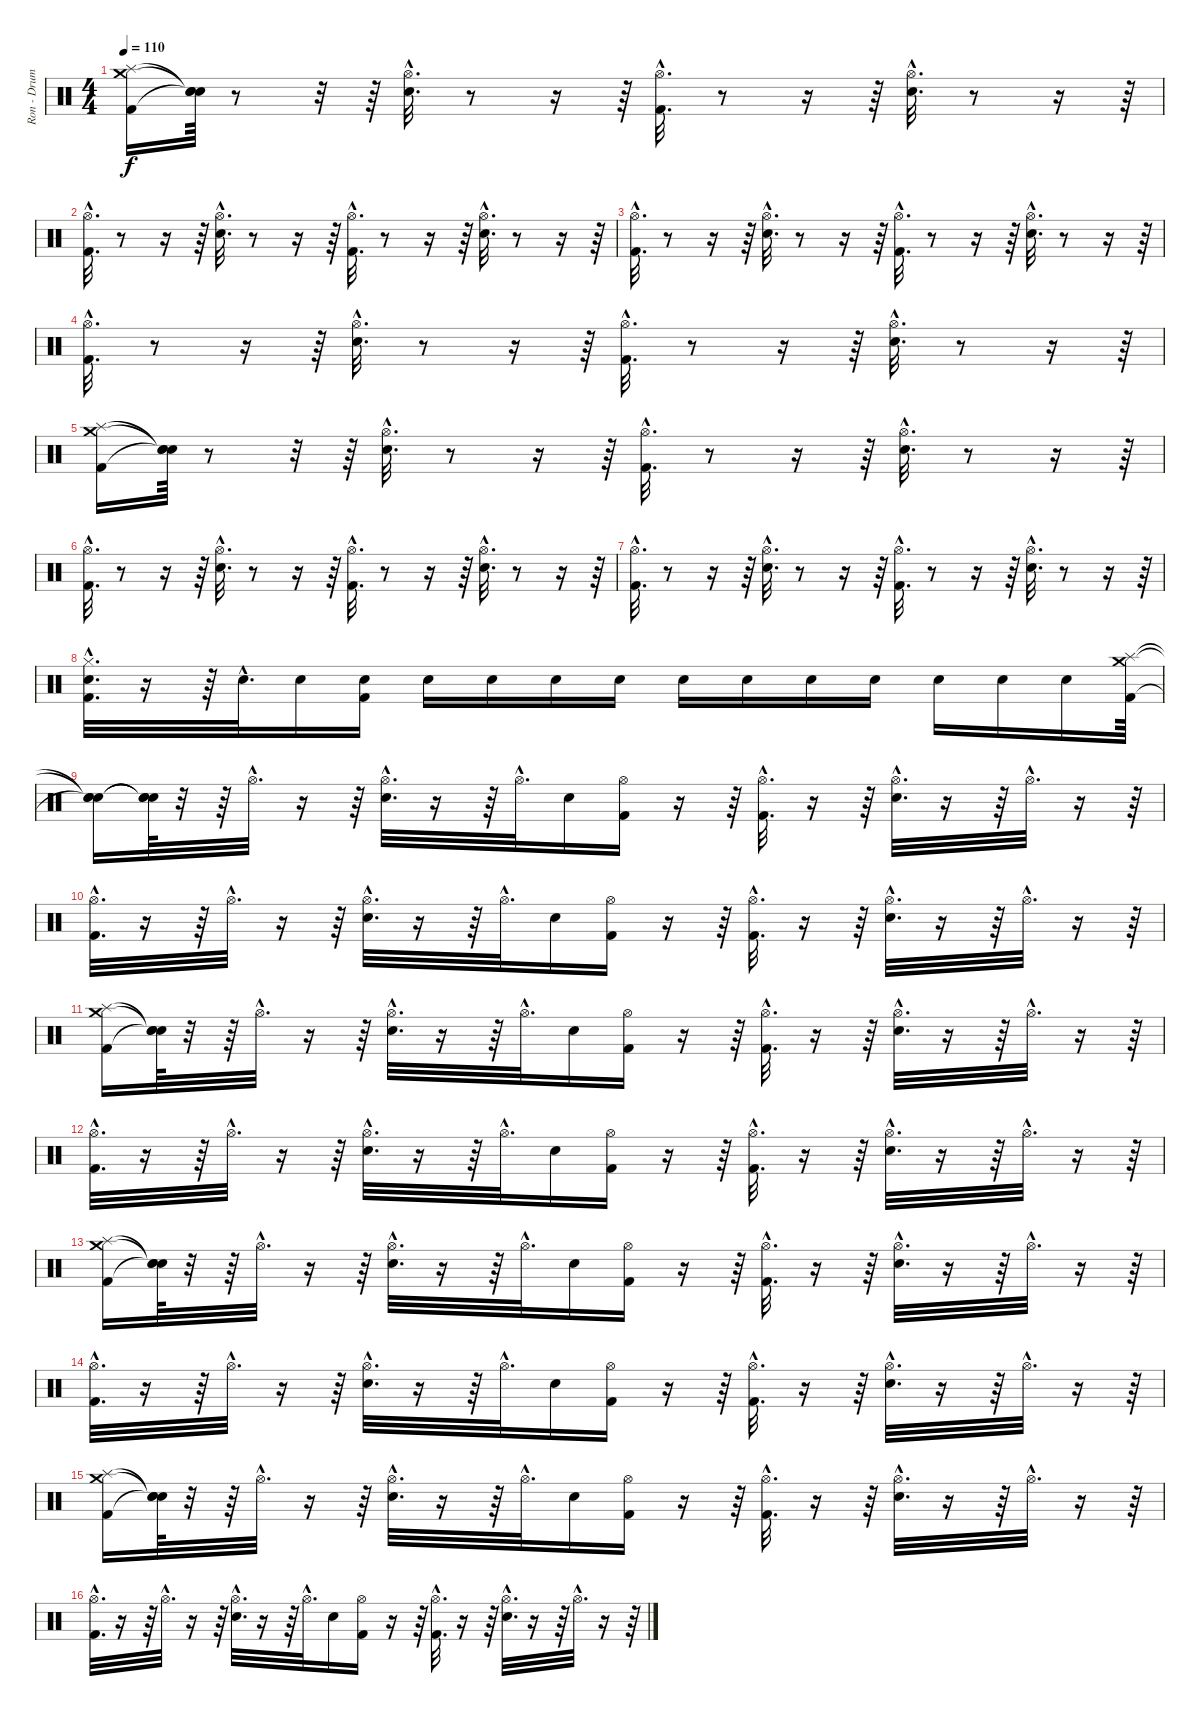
\track ("Ron - Drums" "Ron - Drum") {instrument percussion}
\staff {score}
\articulation defaults
\ts (4 4)
\tempo 110
\clef neutral
\ks c
("Crash medium (hit)" "Splash (hit)" "Kick (hit) 2").16{dy f} ("Snare (hit)"{t} "Snare (hit)"{t} "Snare (hit)"{t}).64 r.8 r.32 r.64 ("Electric Snare (hit)"{hac} "Hi-Hat (open)"{hac}).32{d} r.8 r.16 r.64 ("Kick (hit) 2"{hac} "Hi-Hat (open)"{hac}).32{d} r.8 r.16 r.64 ("Electric Snare (hit)"{hac} "Hi-Hat (open)"{hac}).32{d} r.8 r.16 r.64 |
("Kick (hit) 2"{hac} "Hi-Hat (open)"{hac}).32{d} r.8 r.16 r.64 ("Electric Snare (hit)"{hac} "Hi-Hat (open)"{hac}).32{d} r.8 r.16 r.64 ("Kick (hit) 2"{hac} "Hi-Hat (open)"{hac}).32{d} r.8 r.16 r.64 ("Electric Snare (hit)"{hac} "Hi-Hat (open)"{hac}).32{d} r.8 r.16 r.64 |
("Kick (hit) 2"{hac} "Hi-Hat (open)"{hac}).32{d} r.8 r.16 r.64 ("Electric Snare (hit)"{hac} "Hi-Hat (open)"{hac}).32{d} r.8 r.16 r.64 ("Kick (hit) 2"{hac} "Hi-Hat (open)"{hac}).32{d} r.8 r.16 r.64 ("Electric Snare (hit)"{hac} "Hi-Hat (open)"{hac}).32{d} r.8 r.16 r.64 |
("Kick (hit) 2"{hac} "Hi-Hat (open)"{hac}).32{d} r.8 r.16 r.64 ("Electric Snare (hit)"{hac} "Hi-Hat (open)"{hac}).32{d} r.8 r.16 r.64 ("Kick (hit) 2"{hac} "Hi-Hat (open)"{hac}).32{d} r.8 r.16 r.64 ("Electric Snare (hit)"{hac} "Hi-Hat (open)"{hac}).32{d} r.8 r.16 r.64 |
("Crash medium (hit)" "Splash (hit)" "Kick (hit) 2").16 ("Snare (hit)"{t} "Snare (hit)"{t} "Snare (hit)"{t}).64 r.8 r.32 r.64 ("Electric Snare (hit)"{hac} "Hi-Hat (open)"{hac}).32{d} r.8 r.16 r.64 ("Kick (hit) 2"{hac} "Hi-Hat (open)"{hac}).32{d} r.8 r.16 r.64 ("Electric Snare (hit)"{hac} "Hi-Hat (open)"{hac}).32{d} r.8 r.16 r.64 |
("Kick (hit) 2"{hac} "Hi-Hat (open)"{hac}).32{d} r.8 r.16 r.64 ("Electric Snare (hit)"{hac} "Hi-Hat (open)"{hac}).32{d} r.8 r.16 r.64 ("Kick (hit) 2"{hac} "Hi-Hat (open)"{hac}).32{d} r.8 r.16 r.64 ("Electric Snare (hit)"{hac} "Hi-Hat (open)"{hac}).32{d} r.8 r.16 r.64 |
("Kick (hit) 2"{hac} "Hi-Hat (open)"{hac}).32{d} r.8 r.16 r.64 ("Electric Snare (hit)"{hac} "Hi-Hat (open)"{hac}).32{d} r.8 r.16 r.64 ("Kick (hit) 2"{hac} "Hi-Hat (open)"{hac}).32{d} r.8 r.16 r.64 ("Electric Snare (hit)"{hac} "Hi-Hat (open)"{hac}).32{d} r.8 r.16 r.64 |
("Kick (hit) 2"{hac} "Electric Snare (hit)"{hac} "Hi-Hat (closed)"{hac}).32{d} r.16 r.64 "Electric Snare (hit)"{hac}.32{d} "Electric Snare (hit)".16 ("Electric Snare (hit)" "Kick (hit) 2").16 "Electric Snare (hit)".16 "Electric Snare (hit)".16 "Electric Snare (hit)".16 "Electric Snare (hit)".16 "Electric Snare (hit)".16 "Electric Snare (hit)".16 "Electric Snare (hit)".16 "Electric Snare (hit)".16 "Electric Snare (hit)".16 "Electric Snare (hit)".16 "Electric Snare (hit)".16 ("Crash medium (hit)" "Splash (hit)" "Kick (hit) 2").64 |
("Snare (hit)"{t} "Snare (hit)"{t} "Snare (hit)"{t}).16 ("Snare (hit)"{t} "Snare (hit)"{t} "Snare (hit)"{t}).64 r.32 r.64 "Hi-Hat (open)"{hac}.32{d} r.16 r.64 ("Hi-Hat (open)"{hac} "Electric Snare (hit)"{hac}).32{d} r.16 r.64 "Hi-Hat (open)"{hac}.32{d} "Electric Snare (hit)".16 ("Hi-Hat (open)" "Kick (hit) 2").16 r.16 r.64 ("Hi-Hat (open)"{hac} "Kick (hit) 2"{hac}).32{d} r.16 r.64 ("Hi-Hat (open)"{hac} "Electric Snare (hit)"{hac}).32{d} r.16 r.64 "Hi-Hat (open)"{hac}.32{d} r.16 r.64 |
("Hi-Hat (open)"{hac} "Kick (hit) 2"{hac}).32{d} r.16 r.64 "Hi-Hat (open)"{hac}.32{d} r.16 r.64 ("Hi-Hat (open)"{hac} "Electric Snare (hit)"{hac}).32{d} r.16 r.64 "Hi-Hat (open)"{hac}.32{d} "Electric Snare (hit)".16 ("Hi-Hat (open)" "Kick (hit) 2").16 r.16 r.64 ("Hi-Hat (open)"{hac} "Kick (hit) 2"{hac}).32{d} r.16 r.64 ("Hi-Hat (open)"{hac} "Electric Snare (hit)"{hac}).32{d} r.16 r.64 "Hi-Hat (open)"{hac}.32{d} r.16 r.64 |
("Crash medium (hit)" "Splash (hit)" "Kick (hit) 2").16 ("Snare (hit)"{t} "Snare (hit)"{t} "Snare (hit)"{t}).64 r.32 r.64 "Hi-Hat (open)"{hac}.32{d} r.16 r.64 ("Hi-Hat (open)"{hac} "Electric Snare (hit)"{hac}).32{d} r.16 r.64 "Hi-Hat (open)"{hac}.32{d} "Electric Snare (hit)".16 ("Hi-Hat (open)" "Kick (hit) 2").16 r.16 r.64 ("Hi-Hat (open)"{hac} "Kick (hit) 2"{hac}).32{d} r.16 r.64 ("Hi-Hat (open)"{hac} "Electric Snare (hit)"{hac}).32{d} r.16 r.64 "Hi-Hat (open)"{hac}.32{d} r.16 r.64 |
("Hi-Hat (open)"{hac} "Kick (hit) 2"{hac}).32{d} r.16 r.64 "Hi-Hat (open)"{hac}.32{d} r.16 r.64 ("Hi-Hat (open)"{hac} "Electric Snare (hit)"{hac}).32{d} r.16 r.64 "Hi-Hat (open)"{hac}.32{d} "Electric Snare (hit)".16 ("Hi-Hat (open)" "Kick (hit) 2").16 r.16 r.64 ("Hi-Hat (open)"{hac} "Kick (hit) 2"{hac}).32{d} r.16 r.64 ("Hi-Hat (open)"{hac} "Electric Snare (hit)"{hac}).32{d} r.16 r.64 "Hi-Hat (open)"{hac}.32{d} r.16 r.64 |
("Crash medium (hit)" "Splash (hit)" "Kick (hit) 2").16 ("Snare (hit)"{t} "Snare (hit)"{t} "Snare (hit)"{t}).64 r.32 r.64 "Hi-Hat (open)"{hac}.32{d} r.16 r.64 ("Hi-Hat (open)"{hac} "Electric Snare (hit)"{hac}).32{d} r.16 r.64 "Hi-Hat (open)"{hac}.32{d} "Electric Snare (hit)".16 ("Hi-Hat (open)" "Kick (hit) 2").16 r.16 r.64 ("Hi-Hat (open)"{hac} "Kick (hit) 2"{hac}).32{d} r.16 r.64 ("Hi-Hat (open)"{hac} "Electric Snare (hit)"{hac}).32{d} r.16 r.64 "Hi-Hat (open)"{hac}.32{d} r.16 r.64 |
("Hi-Hat (open)"{hac} "Kick (hit) 2"{hac}).32{d} r.16 r.64 "Hi-Hat (open)"{hac}.32{d} r.16 r.64 ("Hi-Hat (open)"{hac} "Electric Snare (hit)"{hac}).32{d} r.16 r.64 "Hi-Hat (open)"{hac}.32{d} "Electric Snare (hit)".16 ("Hi-Hat (open)" "Kick (hit) 2").16 r.16 r.64 ("Hi-Hat (open)"{hac} "Kick (hit) 2"{hac}).32{d} r.16 r.64 ("Hi-Hat (open)"{hac} "Electric Snare (hit)"{hac}).32{d} r.16 r.64 "Hi-Hat (open)"{hac}.32{d} r.16 r.64 |
("Crash medium (hit)" "Splash (hit)" "Kick (hit) 2").16 ("Snare (hit)"{t} "Snare (hit)"{t} "Snare (hit)"{t}).64 r.32 r.64 "Hi-Hat (open)"{hac}.32{d} r.16 r.64 ("Hi-Hat (open)"{hac} "Electric Snare (hit)"{hac}).32{d} r.16 r.64 "Hi-Hat (open)"{hac}.32{d} "Electric Snare (hit)".16 ("Hi-Hat (open)" "Kick (hit) 2").16 r.16 r.64 ("Hi-Hat (open)"{hac} "Kick (hit) 2"{hac}).32{d} r.16 r.64 ("Hi-Hat (open)"{hac} "Electric Snare (hit)"{hac}).32{d} r.16 r.64 "Hi-Hat (open)"{hac}.32{d} r.16 r.64 |
("Hi-Hat (open)"{hac} "Kick (hit) 2"{hac}).32{d} r.16 r.64 "Hi-Hat (open)"{hac}.32{d} r.16 r.64 ("Hi-Hat (open)"{hac} "Electric Snare (hit)"{hac}).32{d} r.16 r.64 "Hi-Hat (open)"{hac}.32{d} "Electric Snare (hit)".16 ("Hi-Hat (open)" "Kick (hit) 2").16 r.16 r.64 ("Hi-Hat (open)"{hac} "Kick (hit) 2"{hac}).32{d} r.16 r.64 ("Hi-Hat (open)"{hac} "Electric Snare (hit)"{hac}).32{d} r.16 r.64 "Hi-Hat (open)"{hac}.32{d} r.16 r.64
